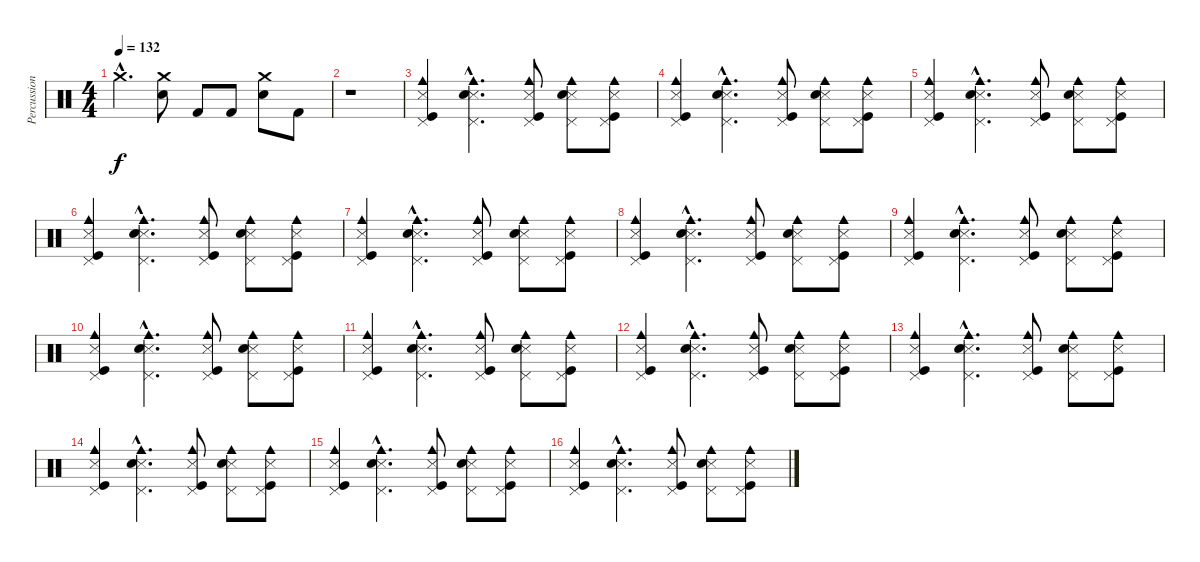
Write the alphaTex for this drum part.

\track ("Percussion" "Percussion") {instrument percussion}
\staff {score}
\articulation defaults
\ts (4 4)
\tempo 132
\clef neutral
\ks c "Crash medium (hit)"{hac}.4{d dy f}
("Crash medium (hit)" "Electric Snare (hit)").8 "Kick (hit) 2".8 "Kick (hit) 2".8 ("Crash medium (hit)" "Electric Snare (hit)").8 "Kick (hit) 2".8 |
r.1 |
("Snare (side stick) 3" "Pedal Hi-Hat (hit)" "Cowbell medium (hit)" "Kick (hit)").4 ("Snare (side stick) 3"{hac} "Pedal Hi-Hat (hit)"{hac} "Cowbell medium (hit)"{hac} "Electric Snare (hit)"{hac}).4{d} ("Snare (side stick) 3" "Pedal Hi-Hat (hit)" "Cowbell medium (hit)" "Kick (hit)").8 ("Snare (side stick) 3" "Pedal Hi-Hat (hit)" "Cowbell medium (hit)" "Electric Snare (hit)").8 ("Snare (side stick) 3" "Pedal Hi-Hat (hit)" "Cowbell medium (hit)" "Kick (hit)").8 |
("Snare (side stick) 3" "Pedal Hi-Hat (hit)" "Cowbell medium (hit)" "Kick (hit)").4 ("Snare (side stick) 3"{hac} "Pedal Hi-Hat (hit)"{hac} "Cowbell medium (hit)"{hac} "Electric Snare (hit)"{hac}).4{d} ("Snare (side stick) 3" "Pedal Hi-Hat (hit)" "Cowbell medium (hit)" "Kick (hit)").8 ("Snare (side stick) 3" "Pedal Hi-Hat (hit)" "Cowbell medium (hit)" "Electric Snare (hit)").8 ("Snare (side stick) 3" "Pedal Hi-Hat (hit)" "Cowbell medium (hit)" "Kick (hit)").8 |
("Snare (side stick) 3" "Pedal Hi-Hat (hit)" "Cowbell medium (hit)" "Kick (hit)").4 ("Snare (side stick) 3"{hac} "Pedal Hi-Hat (hit)"{hac} "Cowbell medium (hit)"{hac} "Electric Snare (hit)"{hac}).4{d} ("Snare (side stick) 3" "Pedal Hi-Hat (hit)" "Cowbell medium (hit)" "Kick (hit)").8 ("Snare (side stick) 3" "Pedal Hi-Hat (hit)" "Cowbell medium (hit)" "Electric Snare (hit)").8 ("Snare (side stick) 3" "Pedal Hi-Hat (hit)" "Cowbell medium (hit)" "Kick (hit)").8 |
("Snare (side stick) 3" "Pedal Hi-Hat (hit)" "Cowbell medium (hit)" "Kick (hit)").4 ("Snare (side stick) 3"{hac} "Pedal Hi-Hat (hit)"{hac} "Cowbell medium (hit)"{hac} "Electric Snare (hit)"{hac}).4{d} ("Snare (side stick) 3" "Pedal Hi-Hat (hit)" "Cowbell medium (hit)" "Kick (hit)").8 ("Snare (side stick) 3" "Pedal Hi-Hat (hit)" "Cowbell medium (hit)" "Electric Snare (hit)").8 ("Snare (side stick) 3" "Pedal Hi-Hat (hit)" "Cowbell medium (hit)" "Kick (hit)").8 |
("Snare (side stick) 3" "Pedal Hi-Hat (hit)" "Cowbell medium (hit)" "Kick (hit)").4 ("Snare (side stick) 3"{hac} "Pedal Hi-Hat (hit)"{hac} "Cowbell medium (hit)"{hac} "Electric Snare (hit)"{hac}).4{d} ("Snare (side stick) 3" "Pedal Hi-Hat (hit)" "Cowbell medium (hit)" "Kick (hit)").8 ("Snare (side stick) 3" "Pedal Hi-Hat (hit)" "Cowbell medium (hit)" "Electric Snare (hit)").8 ("Snare (side stick) 3" "Pedal Hi-Hat (hit)" "Cowbell medium (hit)" "Kick (hit)").8 |
("Snare (side stick) 3" "Pedal Hi-Hat (hit)" "Cowbell medium (hit)" "Kick (hit)").4 ("Snare (side stick) 3"{hac} "Pedal Hi-Hat (hit)"{hac} "Cowbell medium (hit)"{hac} "Electric Snare (hit)"{hac}).4{d} ("Snare (side stick) 3" "Pedal Hi-Hat (hit)" "Cowbell medium (hit)" "Kick (hit)").8 ("Snare (side stick) 3" "Pedal Hi-Hat (hit)" "Cowbell medium (hit)" "Electric Snare (hit)").8 ("Snare (side stick) 3" "Pedal Hi-Hat (hit)" "Cowbell medium (hit)" "Kick (hit)").8 |
("Snare (side stick) 3" "Pedal Hi-Hat (hit)" "Cowbell medium (hit)" "Kick (hit)").4 ("Snare (side stick) 3"{hac} "Pedal Hi-Hat (hit)"{hac} "Cowbell medium (hit)"{hac} "Electric Snare (hit)"{hac}).4{d} ("Snare (side stick) 3" "Pedal Hi-Hat (hit)" "Cowbell medium (hit)" "Kick (hit)").8 ("Snare (side stick) 3" "Pedal Hi-Hat (hit)" "Cowbell medium (hit)" "Electric Snare (hit)").8 ("Snare (side stick) 3" "Pedal Hi-Hat (hit)" "Cowbell medium (hit)" "Kick (hit)").8 |
("Snare (side stick) 3" "Pedal Hi-Hat (hit)" "Cowbell medium (hit)" "Kick (hit)").4 ("Snare (side stick) 3"{hac} "Pedal Hi-Hat (hit)"{hac} "Cowbell medium (hit)"{hac} "Electric Snare (hit)"{hac}).4{d} ("Snare (side stick) 3" "Pedal Hi-Hat (hit)" "Cowbell medium (hit)" "Kick (hit)").8 ("Snare (side stick) 3" "Pedal Hi-Hat (hit)" "Cowbell medium (hit)" "Electric Snare (hit)").8 ("Snare (side stick) 3" "Pedal Hi-Hat (hit)" "Cowbell medium (hit)" "Kick (hit)").8 |
("Snare (side stick) 3" "Pedal Hi-Hat (hit)" "Cowbell medium (hit)" "Kick (hit)").4 ("Snare (side stick) 3"{hac} "Pedal Hi-Hat (hit)"{hac} "Cowbell medium (hit)"{hac} "Electric Snare (hit)"{hac}).4{d} ("Snare (side stick) 3" "Pedal Hi-Hat (hit)" "Cowbell medium (hit)" "Kick (hit)").8 ("Snare (side stick) 3" "Pedal Hi-Hat (hit)" "Cowbell medium (hit)" "Electric Snare (hit)").8 ("Snare (side stick) 3" "Pedal Hi-Hat (hit)" "Cowbell medium (hit)" "Kick (hit)").8 |
("Snare (side stick) 3" "Pedal Hi-Hat (hit)" "Cowbell medium (hit)" "Kick (hit)").4 ("Snare (side stick) 3"{hac} "Pedal Hi-Hat (hit)"{hac} "Cowbell medium (hit)"{hac} "Electric Snare (hit)"{hac}).4{d} ("Snare (side stick) 3" "Pedal Hi-Hat (hit)" "Cowbell medium (hit)" "Kick (hit)").8 ("Snare (side stick) 3" "Pedal Hi-Hat (hit)" "Cowbell medium (hit)" "Electric Snare (hit)").8 ("Snare (side stick) 3" "Pedal Hi-Hat (hit)" "Cowbell medium (hit)" "Kick (hit)").8 |
("Snare (side stick) 3" "Pedal Hi-Hat (hit)" "Cowbell medium (hit)" "Kick (hit)").4 ("Snare (side stick) 3"{hac} "Pedal Hi-Hat (hit)"{hac} "Cowbell medium (hit)"{hac} "Electric Snare (hit)"{hac}).4{d} ("Snare (side stick) 3" "Pedal Hi-Hat (hit)" "Cowbell medium (hit)" "Kick (hit)").8 ("Snare (side stick) 3" "Pedal Hi-Hat (hit)" "Cowbell medium (hit)" "Electric Snare (hit)").8 ("Snare (side stick) 3" "Pedal Hi-Hat (hit)" "Cowbell medium (hit)" "Kick (hit)").8 |
("Snare (side stick) 3" "Pedal Hi-Hat (hit)" "Cowbell medium (hit)" "Kick (hit)").4 ("Snare (side stick) 3"{hac} "Pedal Hi-Hat (hit)"{hac} "Cowbell medium (hit)"{hac} "Electric Snare (hit)"{hac}).4{d} ("Snare (side stick) 3" "Pedal Hi-Hat (hit)" "Cowbell medium (hit)" "Kick (hit)").8 ("Snare (side stick) 3" "Pedal Hi-Hat (hit)" "Cowbell medium (hit)" "Electric Snare (hit)").8 ("Snare (side stick) 3" "Pedal Hi-Hat (hit)" "Cowbell medium (hit)" "Kick (hit)").8 |
("Snare (side stick) 3" "Pedal Hi-Hat (hit)" "Cowbell medium (hit)" "Kick (hit)").4 ("Snare (side stick) 3"{hac} "Pedal Hi-Hat (hit)"{hac} "Cowbell medium (hit)"{hac} "Electric Snare (hit)"{hac}).4{d} ("Snare (side stick) 3" "Pedal Hi-Hat (hit)" "Cowbell medium (hit)" "Kick (hit)").8 ("Snare (side stick) 3" "Pedal Hi-Hat (hit)" "Cowbell medium (hit)" "Electric Snare (hit)").8 ("Snare (side stick) 3" "Pedal Hi-Hat (hit)" "Cowbell medium (hit)" "Kick (hit)").8 |
("Snare (side stick) 3" "Pedal Hi-Hat (hit)" "Cowbell medium (hit)" "Kick (hit)").4 ("Snare (side stick) 3"{hac} "Pedal Hi-Hat (hit)"{hac} "Cowbell medium (hit)"{hac} "Electric Snare (hit)"{hac}).4{d} ("Snare (side stick) 3" "Pedal Hi-Hat (hit)" "Cowbell medium (hit)" "Kick (hit)").8 ("Snare (side stick) 3" "Pedal Hi-Hat (hit)" "Cowbell medium (hit)" "Electric Snare (hit)").8 ("Snare (side stick) 3" "Pedal Hi-Hat (hit)" "Cowbell medium (hit)" "Kick (hit)").8
